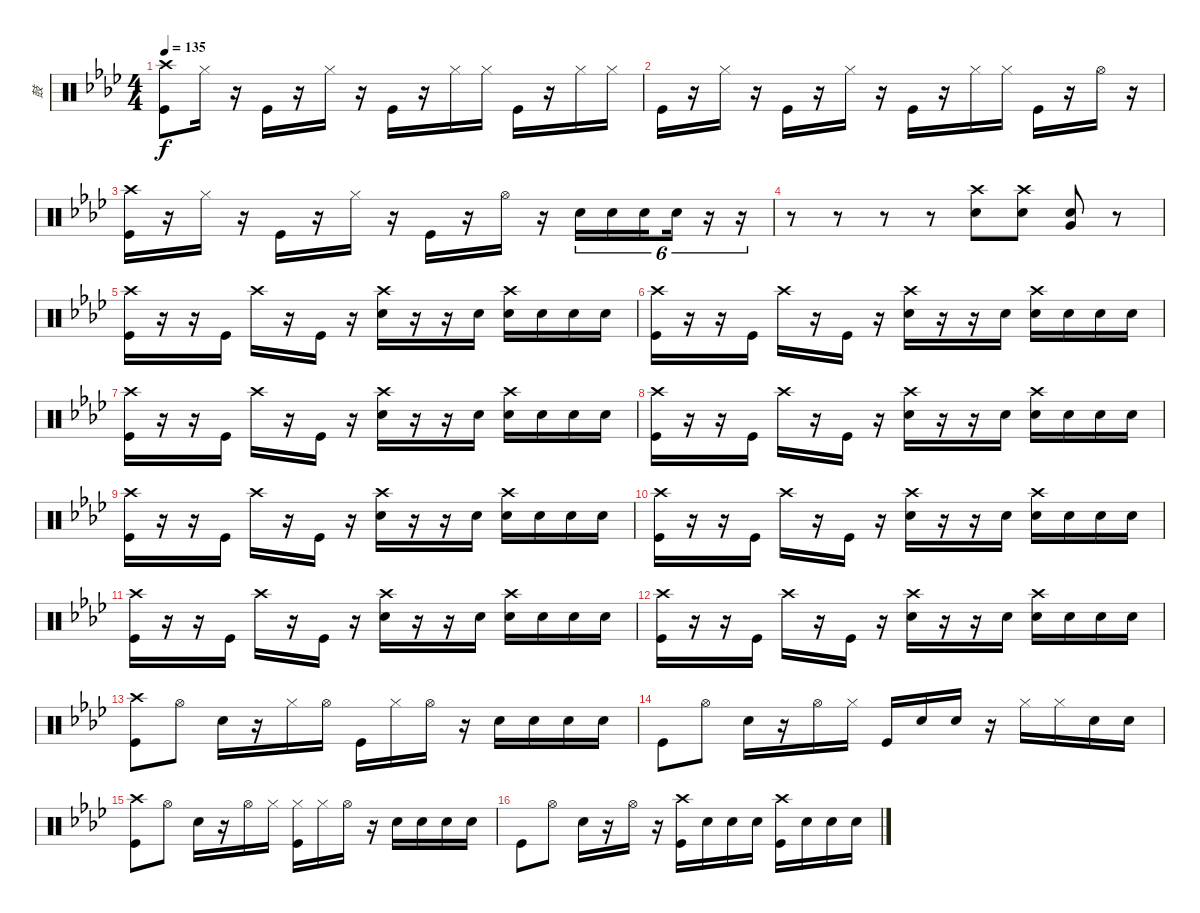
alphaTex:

\track ("鼓" "鼓") {instrument percussion}
\staff {score}
\articulation defaults
\ts (4 4)
\tempo 135
\clef neutral
\ks ab
("Crash high (hit)" "Kick (hit)").8{dy f} "Hi-Hat (closed)".16 r.16 "Kick (hit)".16 r.16 "Hi-Hat (closed)".16 r.16 "Kick (hit)".16 r.16 "Hi-Hat (closed)".16 "Hi-Hat (closed)".16 "Kick (hit)".16 r.16 "Hi-Hat (closed)".16 "Hi-Hat (closed)".16 |
"Kick (hit)".16 r.16 "Hi-Hat (closed)".16 r.16 "Kick (hit)".16 r.16 "Hi-Hat (closed)".16 r.16 "Kick (hit)".16 r.16 "Hi-Hat (closed)".16 "Hi-Hat (closed)".16 "Kick (hit)".16 r.16 "Hi-Hat (open)".16 r.16 |
("Crash high (hit)" "Kick (hit)").16 r.16 "Hi-Hat (closed)".16 r.16 "Kick (hit)".16 r.16 "Hi-Hat (closed)".16 r.16 "Kick (hit)".16 r.16 "Hi-Hat (open)".16 r.16 "Snare (hit) 2".16{tu (6 4)} "Snare (hit) 2".16{tu (6 4)} "Snare (hit) 2".16{tu (6 4) beam splitsecondary} "Snare (hit) 2".16{tu (6 4)} r.16{tu (6 4)} r.16{tu (6 4)} |
r.8 r.8 r.8 r.8 ("Crash high (hit)" "Snare (hit) 2").8 ("Crash high (hit)" "Snare (hit) 2").8 ("Snare (hit) 2" "Very Low Tom (hit)").8 r.8 |
("Crash high (hit)" "Kick (hit)").16 r.16 r.16 "Kick (hit)".16 "Crash high (hit)".16 r.16 "Kick (hit)".16 r.16 ("Crash high (hit)" "Snare (hit) 2").16 r.16 r.16 "Snare (hit) 2".16 ("Crash high (hit)" "Snare (hit) 2").16 "Snare (hit) 2".16 "Snare (hit) 2".16 "Snare (hit) 2".16 |
("Crash high (hit)" "Kick (hit)").16 r.16 r.16 "Kick (hit)".16 "Crash high (hit)".16 r.16 "Kick (hit)".16 r.16 ("Crash high (hit)" "Snare (hit) 2").16 r.16 r.16 "Snare (hit) 2".16 ("Crash high (hit)" "Snare (hit) 2").16 "Snare (hit) 2".16 "Snare (hit) 2".16 "Snare (hit) 2".16 |
("Crash high (hit)" "Kick (hit)").16 r.16 r.16 "Kick (hit)".16 "Crash high (hit)".16 r.16 "Kick (hit)".16 r.16 ("Crash high (hit)" "Snare (hit) 2").16 r.16 r.16 "Snare (hit) 2".16 ("Crash high (hit)" "Snare (hit) 2").16 "Snare (hit) 2".16 "Snare (hit) 2".16 "Snare (hit) 2".16 |
("Crash high (hit)" "Kick (hit)").16 r.16 r.16 "Kick (hit)".16 "Crash high (hit)".16 r.16 "Kick (hit)".16 r.16 ("Crash high (hit)" "Snare (hit) 2").16 r.16 r.16 "Snare (hit) 2".16 ("Crash high (hit)" "Snare (hit) 2").16 "Snare (hit) 2".16 "Snare (hit) 2".16 "Snare (hit) 2".16 |
("Crash high (hit)" "Kick (hit)").16 r.16 r.16 "Kick (hit)".16 "Crash high (hit)".16 r.16 "Kick (hit)".16 r.16 ("Crash high (hit)" "Snare (hit) 2").16 r.16 r.16 "Snare (hit) 2".16 ("Crash high (hit)" "Snare (hit) 2").16 "Snare (hit) 2".16 "Snare (hit) 2".16 "Snare (hit) 2".16 |
("Crash high (hit)" "Kick (hit)").16 r.16 r.16 "Kick (hit)".16 "Crash high (hit)".16 r.16 "Kick (hit)".16 r.16 ("Crash high (hit)" "Snare (hit) 2").16 r.16 r.16 "Snare (hit) 2".16 ("Crash high (hit)" "Snare (hit) 2").16 "Snare (hit) 2".16 "Snare (hit) 2".16 "Snare (hit) 2".16 |
("Crash high (hit)" "Kick (hit)").16 r.16 r.16 "Kick (hit)".16 "Crash high (hit)".16 r.16 "Kick (hit)".16 r.16 ("Crash high (hit)" "Snare (hit) 2").16 r.16 r.16 "Snare (hit) 2".16 ("Crash high (hit)" "Snare (hit) 2").16 "Snare (hit) 2".16 "Snare (hit) 2".16 "Snare (hit) 2".16 |
("Crash high (hit)" "Kick (hit)").16 r.16 r.16 "Kick (hit)".16 "Crash high (hit)".16 r.16 "Kick (hit)".16 r.16 ("Crash high (hit)" "Snare (hit) 2").16 r.16 r.16 "Snare (hit) 2".16 ("Crash high (hit)" "Snare (hit) 2").16 "Snare (hit) 2".16 "Snare (hit) 2".16 "Snare (hit) 2".16 |
("Crash high (hit)" "Kick (hit)").8 "Hi-Hat (open)".8 "Snare (hit) 2".16 r.16 "Hi-Hat (closed)".16 "Hi-Hat (open)".16 "Kick (hit)".16 "Hi-Hat (closed)".16 "Hi-Hat (open)".16 r.16 "Snare (hit) 2".16 "Snare (hit) 2".16 "Snare (hit) 2".16 "Snare (hit) 2".16 |
"Kick (hit)".8 "Hi-Hat (open)".8 "Snare (hit) 2".16 r.16 "Hi-Hat (open)".16 "Hi-Hat (closed)".16 "Kick (hit)".16 "Snare (hit) 2".16 "Snare (hit) 2".16 r.16 "Hi-Hat (closed)".16 "Hi-Hat (closed)".16 "Snare (hit) 2".16 "Snare (hit) 2".16 |
("Crash high (hit)" "Kick (hit)").8 "Hi-Hat (open)".8 "Snare (hit) 2".16 r.16 "Hi-Hat (open)".16 "Hi-Hat (closed)".16 ("Hi-Hat (closed)" "Kick (hit)").16 "Hi-Hat (closed)".16 "Hi-Hat (open)".16 r.16 "Snare (hit) 2".16 "Snare (hit) 2".16 "Snare (hit) 2".16 "Snare (hit) 2".16 |
"Kick (hit)".8 "Hi-Hat (open)".8 "Snare (hit) 2".16 r.16 "Hi-Hat (open)".16 r.16 ("Crash high (hit)" "Kick (hit)").16 "Snare (hit) 2".16 "Snare (hit) 2".16 "Snare (hit) 2".16 ("Crash high (hit)" "Kick (hit)").16 "Snare (hit) 2".16 "Snare (hit) 2".16 "Snare (hit) 2".16
